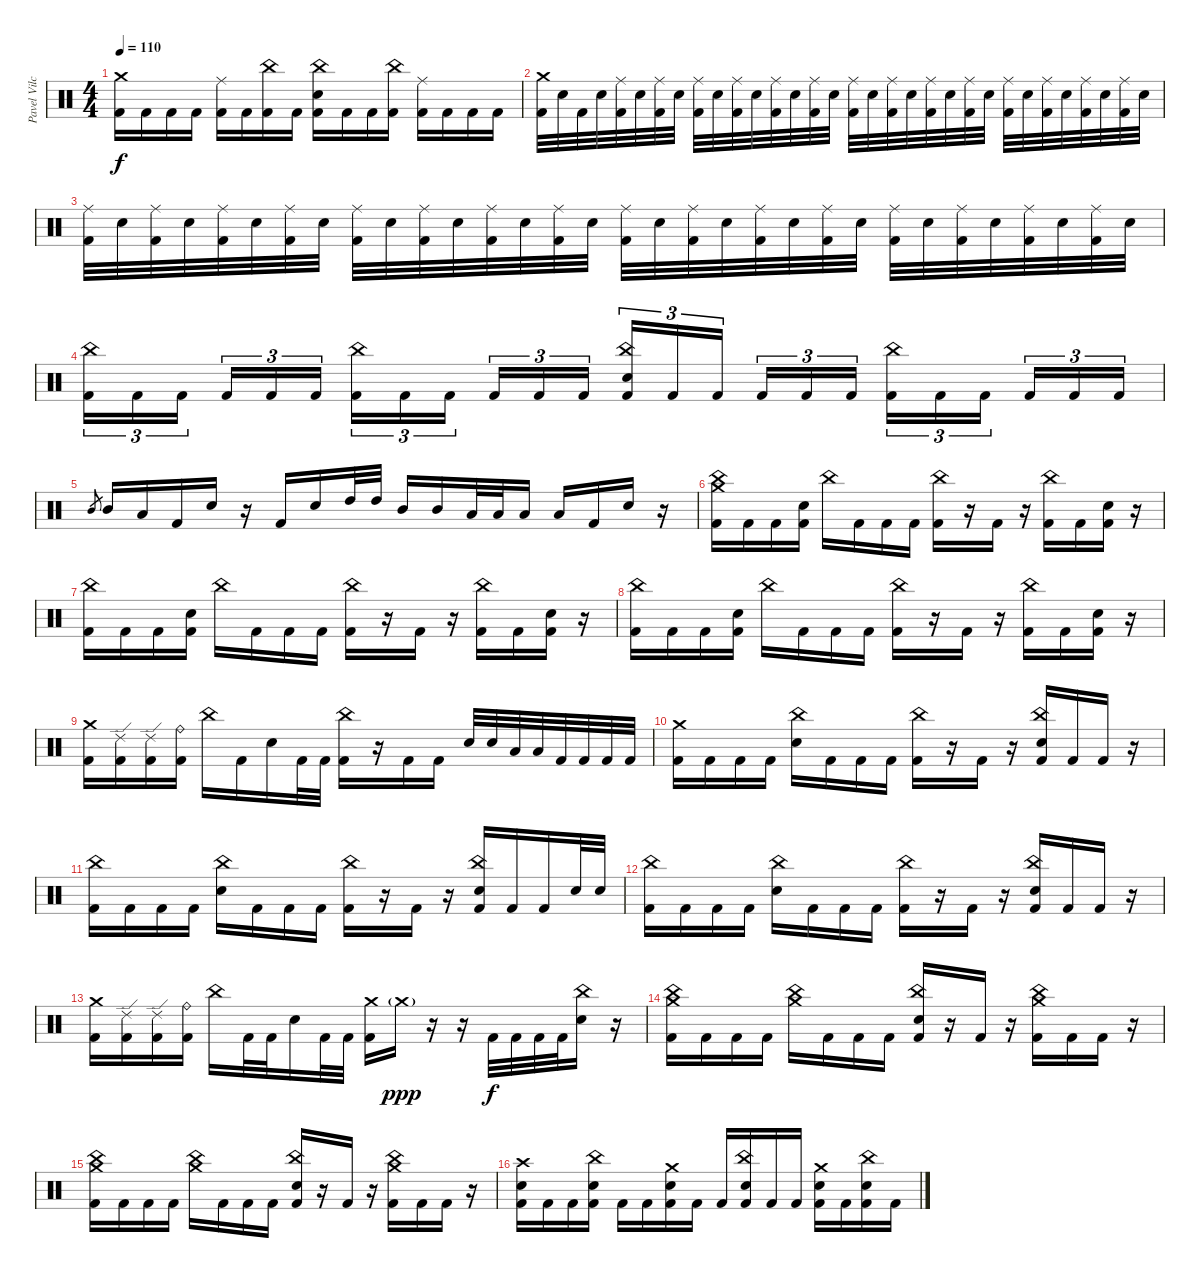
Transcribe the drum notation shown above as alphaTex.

\track ("Pavel Vilchytski" "Pavel Vilc") {instrument percussion}
\staff {score}
\articulation defaults
\ts (4 4)
\tempo 110
\clef neutral
\ks c
("Crash medium (hit)" "Kick (hit) 2").16{dy f} "Kick (hit) 2".16 "Kick (hit) 2".16 "Kick (hit) 2".16 ("Ride (middle)" "Kick (hit) 2").16 "Kick (hit) 2".16 ("China (hit)" "Kick (hit) 2").16 "Kick (hit) 2".16 ("China (hit)" "Electric Snare (hit)" "Kick (hit) 2").16 "Kick (hit) 2".16 "Kick (hit) 2".16 ("China (hit)" "Kick (hit) 2").16 ("Ride (middle)" "Kick (hit) 2").16 "Kick (hit) 2".16 "Kick (hit) 2".16 "Kick (hit) 2".16 |
("Crash medium (hit)" "Kick (hit) 2").32 "Electric Snare (hit)".32 "Kick (hit) 2".32 "Electric Snare (hit)".32 ("Ride (middle)" "Kick (hit) 2").32 "Electric Snare (hit)".32 ("Ride (middle)" "Kick (hit) 2").32 "Electric Snare (hit)".32 ("Ride (middle)" "Kick (hit) 2").32 "Electric Snare (hit)".32 ("Ride (middle)" "Kick (hit) 2").32 "Electric Snare (hit)".32 ("Ride (middle)" "Kick (hit) 2").32 "Electric Snare (hit)".32 ("Ride (middle)" "Kick (hit) 2").32 "Electric Snare (hit)".32 ("Ride (middle)" "Kick (hit) 2").32 "Electric Snare (hit)".32 ("Ride (middle)" "Kick (hit) 2").32 "Electric Snare (hit)".32 ("Ride (middle)" "Kick (hit) 2").32 "Electric Snare (hit)".32 ("Ride (middle)" "Kick (hit) 2").32 "Electric Snare (hit)".32 ("Ride (middle)" "Kick (hit) 2").32 "Electric Snare (hit)".32 ("Ride (middle)" "Kick (hit) 2").32 "Electric Snare (hit)".32 ("Ride (middle)" "Kick (hit) 2").32 "Electric Snare (hit)".32 ("Ride (middle)" "Kick (hit) 2").32 "Electric Snare (hit)".32 |
("Ride (middle)" "Kick (hit) 2").32 "Electric Snare (hit)".32 ("Ride (middle)" "Kick (hit) 2").32 "Electric Snare (hit)".32 ("Ride (middle)" "Kick (hit) 2").32 "Electric Snare (hit)".32 ("Ride (middle)" "Kick (hit) 2").32 "Electric Snare (hit)".32 ("Ride (middle)" "Kick (hit) 2").32 "Electric Snare (hit)".32 ("Ride (middle)" "Kick (hit) 2").32 "Electric Snare (hit)".32 ("Ride (middle)" "Kick (hit) 2").32 "Electric Snare (hit)".32 ("Ride (middle)" "Kick (hit) 2").32 "Electric Snare (hit)".32 ("Ride (middle)" "Kick (hit) 2").32 "Electric Snare (hit)".32 ("Ride (middle)" "Kick (hit) 2").32 "Electric Snare (hit)".32 ("Ride (middle)" "Kick (hit) 2").32 "Electric Snare (hit)".32 ("Ride (middle)" "Kick (hit) 2").32 "Electric Snare (hit)".32 ("Ride (middle)" "Kick (hit) 2").32 "Electric Snare (hit)".32 ("Ride (middle)" "Kick (hit) 2").32 "Electric Snare (hit)".32 ("Ride (middle)" "Kick (hit) 2").32 "Electric Snare (hit)".32 ("Ride (middle)" "Kick (hit) 2").32 "Electric Snare (hit)".32 |
("China (hit)" "Kick (hit) 2").16{tu (3 2)} "Kick (hit) 2".16{tu (3 2)} "Kick (hit) 2".16{tu (3 2) beam splitsecondary} "Kick (hit) 2".16{tu (3 2)} "Kick (hit) 2".16{tu (3 2)} "Kick (hit) 2".16{tu (3 2)} ("China (hit)" "Kick (hit) 2").16{tu (3 2)} "Kick (hit) 2".16{tu (3 2)} "Kick (hit) 2".16{tu (3 2) beam splitsecondary} "Kick (hit) 2".16{tu (3 2)} "Kick (hit) 2".16{tu (3 2)} "Kick (hit) 2".16{tu (3 2)} ("China (hit)" "Electric Snare (hit)" "Kick (hit) 2").16{tu (3 2)} "Kick (hit) 2".16{tu (3 2)} "Kick (hit) 2".16{tu (3 2) beam splitsecondary} "Kick (hit) 2".16{tu (3 2)} "Kick (hit) 2".16{tu (3 2)} "Kick (hit) 2".16{tu (3 2)} ("China (hit)" "Kick (hit) 2").16{tu (3 2)} "Kick (hit) 2".16{tu (3 2)} "Kick (hit) 2".16{tu (3 2) beam splitsecondary} "Kick (hit) 2".16{tu (3 2)} "Kick (hit) 2".16{tu (3 2)} "Kick (hit) 2".16{tu (3 2)} |
"Mid Tom (hit)".8{gr} "Mid Tom (hit)".16 "Low Tom (hit)".16 "Kick (hit) 2".16 "Electric Snare (hit)".16 r.16 "Kick (hit) 2".16 "Electric Snare (hit)".16 "High Tom (hit)".32 "High Tom (hit)".32 "Mid Tom (hit)".16 "Mid Tom (hit)".16 "Low Tom (hit)".32 "Low Tom (hit)".32 "Low Tom (hit)".16 "Low Tom (hit)".16 "Kick (hit) 2".16 "Electric Snare (hit)".16 r.16 |
("China (hit)" "Crash medium (hit)" "Kick (hit) 2").16 "Kick (hit) 2".16 "Kick (hit) 2".16 ("Electric Snare (hit)" "Kick (hit) 2").16 "China (hit)".16 "Kick (hit) 2".16 "Kick (hit) 2".16 "Kick (hit) 2".16 ("China (hit)" "Kick (hit) 2").16 r.16 "Kick (hit) 2".16 r.16 ("China (hit)" "Kick (hit) 2").16 "Kick (hit) 2".16 ("Electric Snare (hit)" "Kick (hit) 2").16 r.16 |
("China (hit)" "Kick (hit) 2").16 "Kick (hit) 2".16 "Kick (hit) 2".16 ("Electric Snare (hit)" "Kick (hit) 2").16 "China (hit)".16 "Kick (hit) 2".16 "Kick (hit) 2".16 "Kick (hit) 2".16 ("China (hit)" "Kick (hit) 2").16 r.16 "Kick (hit) 2".16 r.16 ("China (hit)" "Kick (hit) 2").16 "Kick (hit) 2".16 ("Electric Snare (hit)" "Kick (hit) 2").16 r.16 |
("China (hit)" "Kick (hit) 2").16 "Kick (hit) 2".16 "Kick (hit) 2".16 ("Electric Snare (hit)" "Kick (hit) 2").16 "China (hit)".16 "Kick (hit) 2".16 "Kick (hit) 2".16 "Kick (hit) 2".16 ("China (hit)" "Kick (hit) 2").16 r.16 "Kick (hit) 2".16 r.16 ("China (hit)" "Kick (hit) 2").16 "Kick (hit) 2".16 ("Electric Snare (hit)" "Kick (hit) 2").16 r.16 |
("Crash medium (hit)" "Kick (hit) 2").16 ("Ride (edge) 2" "Kick (hit) 2").16 ("Ride (edge) 2" "Kick (hit) 2").16 ("Ride (bell)" "Kick (hit) 2").16 "China (hit)".16 "Kick (hit) 2".16 "Electric Snare (hit)".16 "Kick (hit) 2".32 "Kick (hit) 2".32 ("China (hit)" "Kick (hit) 2").16 r.16 "Kick (hit) 2".16 "Kick (hit) 2".16 "Electric Snare (hit)".32 "Electric Snare (hit)".32 "Low Tom (hit)".32 "Low Tom (hit)".32 "Kick (hit) 2".32 "Kick (hit) 2".32 "Kick (hit) 2".32 "Kick (hit) 2".32 |
("Crash medium (hit)" "Kick (hit) 2").16 "Kick (hit) 2".16 "Kick (hit) 2".16 "Kick (hit) 2".16 ("China (hit)" "Electric Snare (hit)").16 "Kick (hit) 2".16 "Kick (hit) 2".16 "Kick (hit) 2".16 ("China (hit)" "Kick (hit) 2").16 r.16 "Kick (hit) 2".16 r.16 ("China (hit)" "Electric Snare (hit)" "Kick (hit) 2").16 "Kick (hit) 2".16 "Kick (hit) 2".16 r.16 |
("China (hit)" "Kick (hit) 2").16 "Kick (hit) 2".16 "Kick (hit) 2".16 "Kick (hit) 2".16 ("China (hit)" "Electric Snare (hit)").16 "Kick (hit) 2".16 "Kick (hit) 2".16 "Kick (hit) 2".16 ("China (hit)" "Kick (hit) 2").16 r.16 "Kick (hit) 2".16 r.16 ("China (hit)" "Electric Snare (hit)" "Kick (hit) 2").16 "Kick (hit) 2".16 "Kick (hit) 2".16 "Electric Snare (hit)".32 "Electric Snare (hit)".32 |
("China (hit)" "Kick (hit) 2").16 "Kick (hit) 2".16 "Kick (hit) 2".16 "Kick (hit) 2".16 ("China (hit)" "Electric Snare (hit)").16 "Kick (hit) 2".16 "Kick (hit) 2".16 "Kick (hit) 2".16 ("China (hit)" "Kick (hit) 2").16 r.16 "Kick (hit) 2".16 r.16 ("China (hit)" "Electric Snare (hit)" "Kick (hit) 2").16 "Kick (hit) 2".16 "Kick (hit) 2".16 r.16 |
("Crash medium (hit)" "Kick (hit) 2").16 ("Ride (edge) 2" "Kick (hit) 2").16 ("Ride (edge) 2" "Kick (hit) 2").16 ("Ride (bell)" "Kick (hit) 2").16 "China (hit)".16 "Kick (hit) 2".32 "Kick (hit) 2".32 "Electric Snare (hit)".16 "Kick (hit) 2".32 "Kick (hit) 2".32 ("Crash medium (hit)" "Kick (hit) 2").16 "Crash medium (hit)"{g}.16{dy ppp} r.16 r.16 "Kick (hit) 2".32{dy f} "Kick (hit) 2".32 "Kick (hit) 2".32 "Kick (hit) 2".32 ("China (hit)" "Electric Snare (hit)").16 r.16 |
("China (hit)" "Crash medium (hit)" "Kick (hit) 2").16 "Kick (hit) 2".16 "Kick (hit) 2".16 "Kick (hit) 2".16 ("China (hit)" "Crash medium (hit)").16 "Kick (hit) 2".16 "Kick (hit) 2".16 "Kick (hit) 2".16 ("China (hit)" "Electric Snare (hit)" "Kick (hit) 2").16 r.16 "Kick (hit) 2".16 r.16 ("China (hit)" "Crash medium (hit)" "Kick (hit) 2").16 "Kick (hit) 2".16 "Kick (hit) 2".16 r.16 |
("China (hit)" "Crash medium (hit)" "Kick (hit) 2").16 "Kick (hit) 2".16 "Kick (hit) 2".16 "Kick (hit) 2".16 ("China (hit)" "Crash medium (hit)").16 "Kick (hit) 2".16 "Kick (hit) 2".16 "Kick (hit) 2".16 ("China (hit)" "Electric Snare (hit)" "Kick (hit) 2").16 r.16 "Kick (hit) 2".16 r.16 ("China (hit)" "Crash medium (hit)" "Kick (hit) 2").16 "Kick (hit) 2".16 "Kick (hit) 2".16 r.16 |
("Crash high (hit)" "Electric Snare (hit)" "Kick (hit) 2").16 "Kick (hit) 2".16 "Kick (hit) 2".16 ("China (hit)" "Electric Snare (hit)" "Kick (hit) 2").16 "Kick (hit) 2".16 "Kick (hit) 2".16 ("Crash medium (hit)" "Electric Snare (hit)" "Kick (hit) 2").16 "Kick (hit) 2".16 "Kick (hit) 2".16 ("China (hit)" "Electric Snare (hit)" "Kick (hit) 2").16 "Kick (hit) 2".16 "Kick (hit) 2".16 ("Crash medium (hit)" "Electric Snare (hit)" "Kick (hit) 2").16 "Kick (hit) 2".16 ("China (hit)" "Electric Snare (hit)" "Kick (hit) 2").16 "Kick (hit) 2".16
